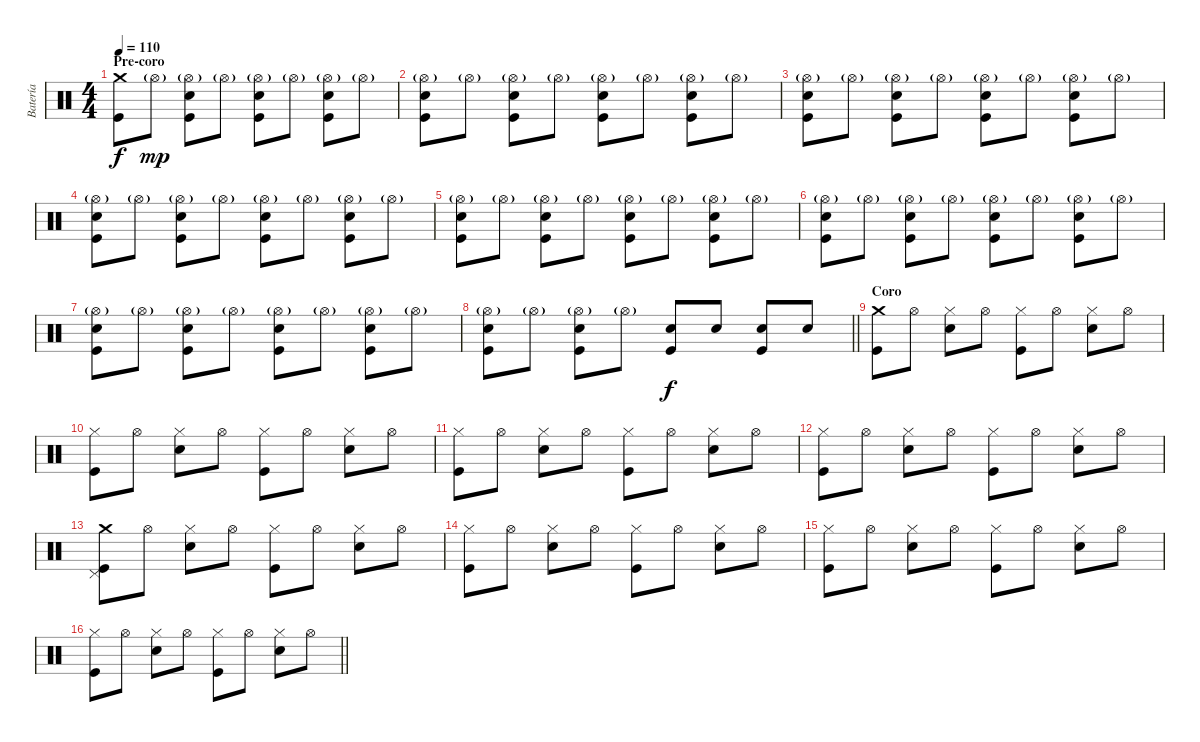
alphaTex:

\track ("Batería" "Batería") {instrument percussion}
\staff {score}
\articulation defaults
\ts (4 4)
\section ("" "Pre-coro")
\tempo 110
\clef neutral
\ks c
("Crash medium (hit)" "Kick (hit)").8{dy f} "Hi-Hat (open)"{g}.8{dy mp} ("Hi-Hat (open)"{g} "Snare (hit) 2" "Kick (hit)").8 "Hi-Hat (open)"{g}.8 ("Hi-Hat (open)"{g} "Snare (hit) 2" "Kick (hit)").8 "Hi-Hat (open)"{g}.8 ("Hi-Hat (open)"{g} "Snare (hit) 2" "Kick (hit)").8 "Hi-Hat (open)"{g}.8 |
("Hi-Hat (open)"{g} "Snare (hit) 2" "Kick (hit)").8 "Hi-Hat (open)"{g}.8 ("Hi-Hat (open)"{g} "Snare (hit) 2" "Kick (hit)").8 "Hi-Hat (open)"{g}.8 ("Hi-Hat (open)"{g} "Snare (hit) 2" "Kick (hit)").8 "Hi-Hat (open)"{g}.8 ("Hi-Hat (open)"{g} "Snare (hit) 2" "Kick (hit)").8 "Hi-Hat (open)"{g}.8 |
("Hi-Hat (open)"{g} "Snare (hit) 2" "Kick (hit)").8 "Hi-Hat (open)"{g}.8 ("Hi-Hat (open)"{g} "Snare (hit) 2" "Kick (hit)").8 "Hi-Hat (open)"{g}.8 ("Hi-Hat (open)"{g} "Snare (hit) 2" "Kick (hit)").8 "Hi-Hat (open)"{g}.8 ("Hi-Hat (open)"{g} "Snare (hit) 2" "Kick (hit)").8 "Hi-Hat (open)"{g}.8 |
("Hi-Hat (open)"{g} "Snare (hit) 2" "Kick (hit)").8 "Hi-Hat (open)"{g}.8 ("Hi-Hat (open)"{g} "Snare (hit) 2" "Kick (hit)").8 "Hi-Hat (open)"{g}.8 ("Hi-Hat (open)"{g} "Snare (hit) 2" "Kick (hit)").8 "Hi-Hat (open)"{g}.8 ("Hi-Hat (open)"{g} "Snare (hit) 2" "Kick (hit)").8 "Hi-Hat (open)"{g}.8 |
("Hi-Hat (open)"{g} "Snare (hit) 2" "Kick (hit)").8 "Hi-Hat (open)"{g}.8 ("Hi-Hat (open)"{g} "Snare (hit) 2" "Kick (hit)").8 "Hi-Hat (open)"{g}.8 ("Hi-Hat (open)"{g} "Snare (hit) 2" "Kick (hit)").8 "Hi-Hat (open)"{g}.8 ("Hi-Hat (open)"{g} "Snare (hit) 2" "Kick (hit)").8 "Hi-Hat (open)"{g}.8 |
("Hi-Hat (open)"{g} "Snare (hit) 2" "Kick (hit)").8 "Hi-Hat (open)"{g}.8 ("Hi-Hat (open)"{g} "Snare (hit) 2" "Kick (hit)").8 "Hi-Hat (open)"{g}.8 ("Hi-Hat (open)"{g} "Snare (hit) 2" "Kick (hit)").8 "Hi-Hat (open)"{g}.8 ("Hi-Hat (open)"{g} "Snare (hit) 2" "Kick (hit)").8 "Hi-Hat (open)"{g}.8 |
("Hi-Hat (open)"{g} "Snare (hit) 2" "Kick (hit)").8 "Hi-Hat (open)"{g}.8 ("Hi-Hat (open)"{g} "Snare (hit) 2" "Kick (hit)").8 "Hi-Hat (open)"{g}.8 ("Hi-Hat (open)"{g} "Snare (hit) 2" "Kick (hit)").8 "Hi-Hat (open)"{g}.8 ("Hi-Hat (open)"{g} "Snare (hit) 2" "Kick (hit)").8 "Hi-Hat (open)"{g}.8 |
\barLineRight lightlight
("Hi-Hat (open)"{g} "Snare (hit) 2" "Kick (hit)").8 "Hi-Hat (open)"{g}.8 ("Hi-Hat (open)"{g} "Snare (hit) 2" "Kick (hit)").8 "Hi-Hat (open)"{g}.8 ("Snare (hit) 2" "Kick (hit)").8{dy f} "Snare (hit) 2".8 ("Snare (hit) 2" "Kick (hit)").8 "Snare (hit) 2".8 |
\section ("" "Coro")
("Crash medium (hit)" "Kick (hit)").8 "Hi-Hat (open)".8 ("Hi-Hat (closed)" "Snare (hit) 2").8 "Hi-Hat (open)".8 ("Hi-Hat (closed)" "Kick (hit)").8 "Hi-Hat (open)".8 ("Hi-Hat (closed)" "Snare (hit) 2").8 "Hi-Hat (open)".8 |
("Hi-Hat (closed)" "Kick (hit)").8 "Hi-Hat (open)".8 ("Hi-Hat (closed)" "Snare (hit) 2").8 "Hi-Hat (open)".8 ("Hi-Hat (closed)" "Kick (hit)").8 "Hi-Hat (open)".8 ("Hi-Hat (closed)" "Snare (hit) 2").8 "Hi-Hat (open)".8 |
("Hi-Hat (closed)" "Kick (hit)").8 "Hi-Hat (open)".8 ("Hi-Hat (closed)" "Snare (hit) 2").8 "Hi-Hat (open)".8 ("Hi-Hat (closed)" "Kick (hit)").8 "Hi-Hat (open)".8 ("Hi-Hat (closed)" "Snare (hit) 2").8 "Hi-Hat (open)".8 |
("Hi-Hat (closed)" "Kick (hit)").8 "Hi-Hat (open)".8 ("Hi-Hat (closed)" "Snare (hit) 2").8 "Hi-Hat (open)".8 ("Hi-Hat (closed)" "Kick (hit)").8 "Hi-Hat (open)".8 ("Hi-Hat (closed)" "Snare (hit) 2").8 "Hi-Hat (open)".8 |
("Crash medium (hit)" "Pedal Hi-Hat (hit)" "Kick (hit)").8 "Hi-Hat (open)".8 ("Hi-Hat (closed)" "Snare (hit) 2").8 "Hi-Hat (open)".8 ("Hi-Hat (closed)" "Kick (hit)").8 "Hi-Hat (open)".8 ("Hi-Hat (closed)" "Snare (hit) 2").8 "Hi-Hat (open)".8 |
("Hi-Hat (closed)" "Kick (hit)").8 "Hi-Hat (open)".8 ("Hi-Hat (closed)" "Snare (hit) 2").8 "Hi-Hat (open)".8 ("Hi-Hat (closed)" "Kick (hit)").8 "Hi-Hat (open)".8 ("Hi-Hat (closed)" "Snare (hit) 2").8 "Hi-Hat (open)".8 |
("Hi-Hat (closed)" "Kick (hit)").8 "Hi-Hat (open)".8 ("Hi-Hat (closed)" "Snare (hit) 2").8 "Hi-Hat (open)".8 ("Hi-Hat (closed)" "Kick (hit)").8 "Hi-Hat (open)".8 ("Hi-Hat (closed)" "Snare (hit) 2").8 "Hi-Hat (open)".8 |
\barLineRight lightlight
("Hi-Hat (closed)" "Kick (hit)").8 "Hi-Hat (open)".8 ("Hi-Hat (closed)" "Snare (hit) 2").8 "Hi-Hat (open)".8 ("Hi-Hat (closed)" "Kick (hit)").8 "Hi-Hat (open)".8 ("Hi-Hat (closed)" "Snare (hit) 2").8 "Hi-Hat (open)".8
